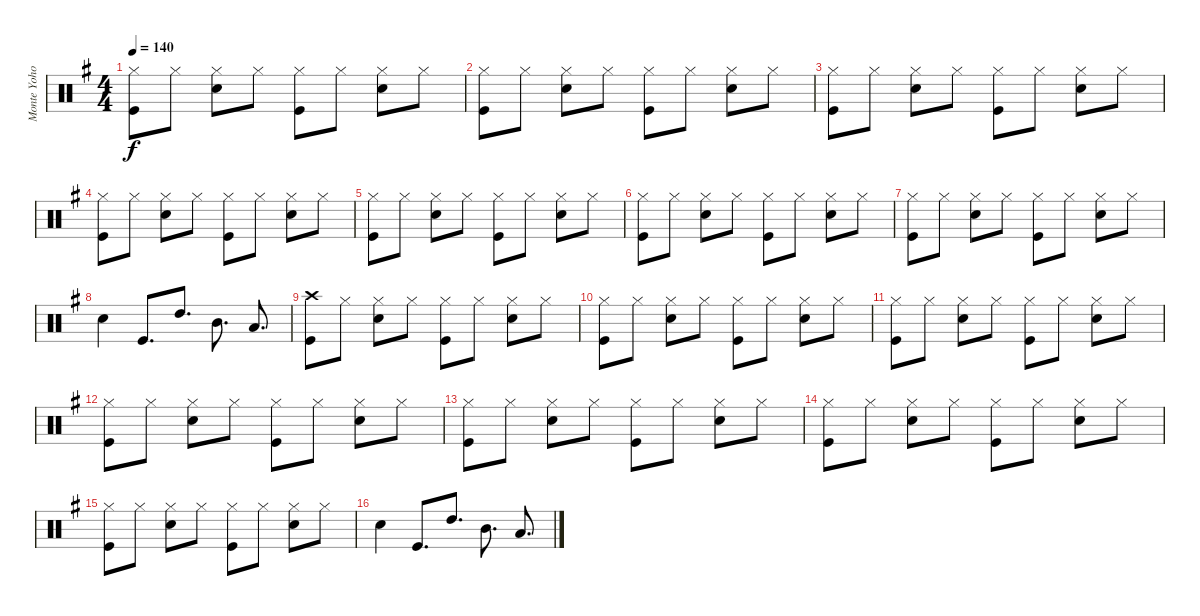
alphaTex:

\track ("Monte Yoho Drums" "Monte Yoho") {instrument percussion}
\staff {score}
\articulation defaults
\ts (4 4)
\tempo 140
\clef neutral
\ks g
("Hi-Hat (closed)" "Kick (hit)").8{dy f} "Hi-Hat (closed)".8 ("Hi-Hat (closed)" "Snare (hit) 2").8 "Hi-Hat (closed)".8 ("Hi-Hat (closed)" "Kick (hit)").8 "Hi-Hat (closed)".8 ("Hi-Hat (closed)" "Snare (hit) 2").8 "Hi-Hat (closed)".8 |
("Hi-Hat (closed)" "Kick (hit)").8 "Hi-Hat (closed)".8 ("Hi-Hat (closed)" "Snare (hit) 2").8 "Hi-Hat (closed)".8 ("Hi-Hat (closed)" "Kick (hit)").8 "Hi-Hat (closed)".8 ("Hi-Hat (closed)" "Snare (hit) 2").8 "Hi-Hat (closed)".8 |
("Hi-Hat (closed)" "Kick (hit)").8 "Hi-Hat (closed)".8 ("Hi-Hat (closed)" "Snare (hit) 2").8 "Hi-Hat (closed)".8 ("Hi-Hat (closed)" "Kick (hit)").8 "Hi-Hat (closed)".8 ("Hi-Hat (closed)" "Snare (hit) 2").8 "Hi-Hat (closed)".8 |
("Hi-Hat (closed)" "Kick (hit)").8 "Hi-Hat (closed)".8 ("Hi-Hat (closed)" "Snare (hit) 2").8 "Hi-Hat (closed)".8 ("Hi-Hat (closed)" "Kick (hit)").8 "Hi-Hat (closed)".8 ("Hi-Hat (closed)" "Snare (hit) 2").8 "Hi-Hat (closed)".8 |
("Hi-Hat (closed)" "Kick (hit)").8 "Hi-Hat (closed)".8 ("Hi-Hat (closed)" "Snare (hit) 2").8 "Hi-Hat (closed)".8 ("Hi-Hat (closed)" "Kick (hit)").8 "Hi-Hat (closed)".8 ("Hi-Hat (closed)" "Snare (hit) 2").8 "Hi-Hat (closed)".8 |
("Hi-Hat (closed)" "Kick (hit)").8 "Hi-Hat (closed)".8 ("Hi-Hat (closed)" "Snare (hit) 2").8 "Hi-Hat (closed)".8 ("Hi-Hat (closed)" "Kick (hit)").8 "Hi-Hat (closed)".8 ("Hi-Hat (closed)" "Snare (hit) 2").8 "Hi-Hat (closed)".8 |
("Hi-Hat (closed)" "Kick (hit)").8 "Hi-Hat (closed)".8 ("Hi-Hat (closed)" "Snare (hit) 2").8 "Hi-Hat (closed)".8 ("Hi-Hat (closed)" "Kick (hit)").8 "Hi-Hat (closed)".8 ("Hi-Hat (closed)" "Snare (hit) 2").8 "Hi-Hat (closed)".8 |
"Snare (hit) 2".4 "Kick (hit)".8{d} "High Tom (hit)".8{d} "Mid Tom (hit)".8{d} "Low Tom (hit)".8{d} |
("Crash high (hit)" "Kick (hit)").8 "Hi-Hat (closed)".8 ("Hi-Hat (closed)" "Snare (hit) 2").8 "Hi-Hat (closed)".8 ("Hi-Hat (closed)" "Kick (hit)").8 "Hi-Hat (closed)".8 ("Hi-Hat (closed)" "Snare (hit) 2").8 "Hi-Hat (closed)".8 |
("Hi-Hat (closed)" "Kick (hit)").8 "Hi-Hat (closed)".8 ("Hi-Hat (closed)" "Snare (hit) 2").8 "Hi-Hat (closed)".8 ("Hi-Hat (closed)" "Kick (hit)").8 "Hi-Hat (closed)".8 ("Hi-Hat (closed)" "Snare (hit) 2").8 "Hi-Hat (closed)".8 |
("Hi-Hat (closed)" "Kick (hit)").8 "Hi-Hat (closed)".8 ("Hi-Hat (closed)" "Snare (hit) 2").8 "Hi-Hat (closed)".8 ("Hi-Hat (closed)" "Kick (hit)").8 "Hi-Hat (closed)".8 ("Hi-Hat (closed)" "Snare (hit) 2").8 "Hi-Hat (closed)".8 |
("Hi-Hat (closed)" "Kick (hit)").8 "Hi-Hat (closed)".8 ("Hi-Hat (closed)" "Snare (hit) 2").8 "Hi-Hat (closed)".8 ("Hi-Hat (closed)" "Kick (hit)").8 "Hi-Hat (closed)".8 ("Hi-Hat (closed)" "Snare (hit) 2").8 "Hi-Hat (closed)".8 |
("Hi-Hat (closed)" "Kick (hit)").8 "Hi-Hat (closed)".8 ("Hi-Hat (closed)" "Snare (hit) 2").8 "Hi-Hat (closed)".8 ("Hi-Hat (closed)" "Kick (hit)").8 "Hi-Hat (closed)".8 ("Hi-Hat (closed)" "Snare (hit) 2").8 "Hi-Hat (closed)".8 |
("Hi-Hat (closed)" "Kick (hit)").8 "Hi-Hat (closed)".8 ("Hi-Hat (closed)" "Snare (hit) 2").8 "Hi-Hat (closed)".8 ("Hi-Hat (closed)" "Kick (hit)").8 "Hi-Hat (closed)".8 ("Hi-Hat (closed)" "Snare (hit) 2").8 "Hi-Hat (closed)".8 |
("Hi-Hat (closed)" "Kick (hit)").8 "Hi-Hat (closed)".8 ("Hi-Hat (closed)" "Snare (hit) 2").8 "Hi-Hat (closed)".8 ("Hi-Hat (closed)" "Kick (hit)").8 "Hi-Hat (closed)".8 ("Hi-Hat (closed)" "Snare (hit) 2").8 "Hi-Hat (closed)".8 |
"Snare (hit) 2".4 "Kick (hit)".8{d} "High Tom (hit)".8{d} "Mid Tom (hit)".8{d} "Low Tom (hit)".8{d}
